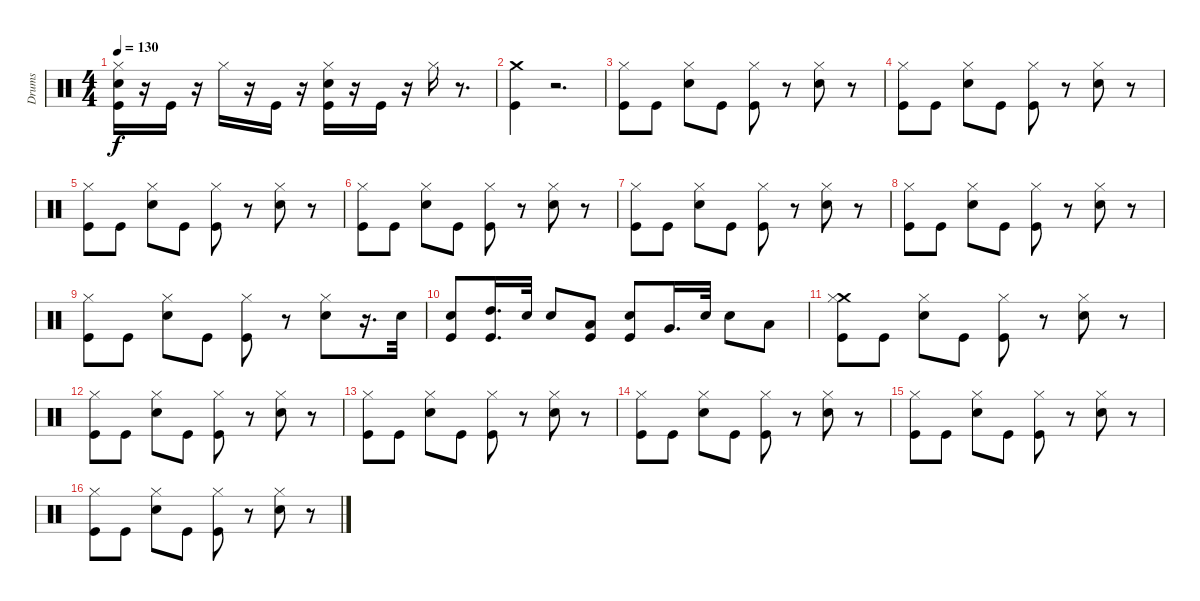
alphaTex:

\track ("Drums" "Drums") {instrument percussion}
\staff {score}
\articulation defaults
\ts (4 4)
\tempo 130
\clef neutral
\ks c
("Hi-Hat (closed)" "Snare (hit) 2" "Kick (hit)").16{dy f} r.16 "Kick (hit)".16 r.16 "Hi-Hat (closed)".16 r.16 "Kick (hit)".16 r.16 ("Hi-Hat (closed)" "Snare (hit) 2" "Kick (hit)").16 r.16 "Kick (hit)".16 r.16 "Hi-Hat (closed)".16 r.8{d} |
("Kick (hit)" "Crash medium (hit)").4 r.2{d} |
("Hi-Hat (closed)" "Kick (hit)").8 "Kick (hit)".8 ("Hi-Hat (closed)" "Snare (hit) 2").8 "Kick (hit)".8 ("Hi-Hat (closed)" "Kick (hit)").8 r.8 ("Hi-Hat (closed)" "Snare (hit) 2").8 r.8 |
("Hi-Hat (closed)" "Kick (hit)").8 "Kick (hit)".8 ("Hi-Hat (closed)" "Snare (hit) 2").8 "Kick (hit)".8 ("Hi-Hat (closed)" "Kick (hit)").8 r.8 ("Hi-Hat (closed)" "Snare (hit) 2").8 r.8 |
("Hi-Hat (closed)" "Kick (hit)").8 "Kick (hit)".8 ("Hi-Hat (closed)" "Snare (hit) 2").8 "Kick (hit)".8 ("Hi-Hat (closed)" "Kick (hit)").8 r.8 ("Hi-Hat (closed)" "Snare (hit) 2").8 r.8 |
("Hi-Hat (closed)" "Kick (hit)").8 "Kick (hit)".8 ("Hi-Hat (closed)" "Snare (hit) 2").8 "Kick (hit)".8 ("Hi-Hat (closed)" "Kick (hit)").8 r.8 ("Hi-Hat (closed)" "Snare (hit) 2").8 r.8 |
("Hi-Hat (closed)" "Kick (hit)").8 "Kick (hit)".8 ("Hi-Hat (closed)" "Snare (hit) 2").8 "Kick (hit)".8 ("Hi-Hat (closed)" "Kick (hit)").8 r.8 ("Hi-Hat (closed)" "Snare (hit) 2").8 r.8 |
("Hi-Hat (closed)" "Kick (hit)").8 "Kick (hit)".8 ("Hi-Hat (closed)" "Snare (hit) 2").8 "Kick (hit)".8 ("Hi-Hat (closed)" "Kick (hit)").8 r.8 ("Hi-Hat (closed)" "Snare (hit) 2").8 r.8 |
("Hi-Hat (closed)" "Kick (hit)").8 "Kick (hit)".8 ("Hi-Hat (closed)" "Snare (hit) 2").8 "Kick (hit)".8 ("Hi-Hat (closed)" "Kick (hit)").8 r.8 ("Hi-Hat (closed)" "Snare (hit) 2").8 r.16{d} "Snare (hit) 2".32 |
("Snare (hit) 2" "Kick (hit)").8 ("High Tom (hit)" "Kick (hit)").16{d} "Snare (hit) 2".32 "Snare (hit) 2".8 ("Low Tom (hit)" "Kick (hit)").8 ("Snare (hit) 2" "Kick (hit)").8 "Very Low Tom (hit)".16{d} "Snare (hit) 2".32 "Snare (hit) 2".8 "Low Floor Tom (hit)".8 |
("Crash medium (hit)" "Hi-Hat (closed)" "Kick (hit)").8 "Kick (hit)".8 ("Hi-Hat (closed)" "Snare (hit) 2").8 "Kick (hit)".8 ("Hi-Hat (closed)" "Kick (hit)").8 r.8 ("Hi-Hat (closed)" "Snare (hit) 2").8 r.8 |
("Hi-Hat (closed)" "Kick (hit)").8 "Kick (hit)".8 ("Hi-Hat (closed)" "Snare (hit) 2").8 "Kick (hit)".8 ("Hi-Hat (closed)" "Kick (hit)").8 r.8 ("Hi-Hat (closed)" "Snare (hit) 2").8 r.8 |
("Hi-Hat (closed)" "Kick (hit)").8 "Kick (hit)".8 ("Hi-Hat (closed)" "Snare (hit) 2").8 "Kick (hit)".8 ("Hi-Hat (closed)" "Kick (hit)").8 r.8 ("Hi-Hat (closed)" "Snare (hit) 2").8 r.8 |
("Hi-Hat (closed)" "Kick (hit)").8 "Kick (hit)".8 ("Hi-Hat (closed)" "Snare (hit) 2").8 "Kick (hit)".8 ("Hi-Hat (closed)" "Kick (hit)").8 r.8 ("Hi-Hat (closed)" "Snare (hit) 2").8 r.8 |
("Hi-Hat (closed)" "Kick (hit)").8 "Kick (hit)".8 ("Hi-Hat (closed)" "Snare (hit) 2").8 "Kick (hit)".8 ("Hi-Hat (closed)" "Kick (hit)").8 r.8 ("Hi-Hat (closed)" "Snare (hit) 2").8 r.8 |
("Hi-Hat (closed)" "Kick (hit)").8 "Kick (hit)".8 ("Hi-Hat (closed)" "Snare (hit) 2").8 "Kick (hit)".8 ("Hi-Hat (closed)" "Kick (hit)").8 r.8 ("Hi-Hat (closed)" "Snare (hit) 2").8 r.8
